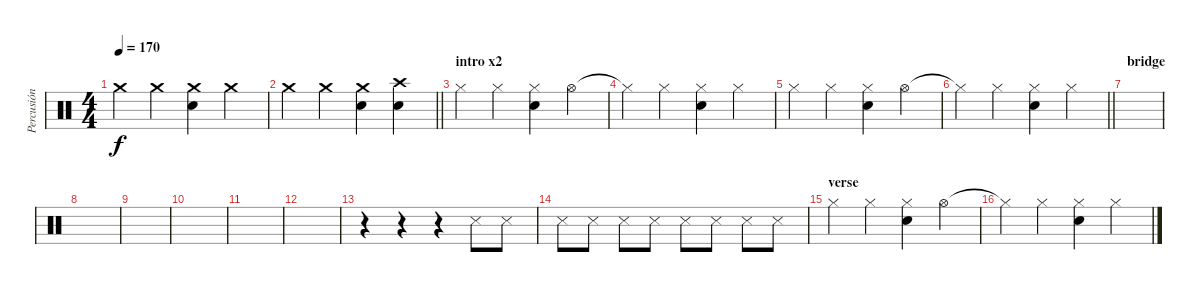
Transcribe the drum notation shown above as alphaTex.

\track ("Percusión" "Percusión") {instrument percussion}
\staff {score}
\articulation defaults
\ts (4 4)
\tempo 170
\clef neutral
\ks c "Crash medium (hit)".4{dy f} "Crash medium (hit)".4
("Crash medium (hit)" "Electric Snare (hit)").4 "Crash medium (hit)".4 |
\barLineRight lightlight "Crash medium (hit)".4 "Crash medium (hit)".4
("Crash medium (hit)" "Electric Snare (hit)").4 ("Crash high (hit)" "Electric Snare (hit)").4 |
\section ("" "intro x2")
"Hi-Hat (closed)".4 "Hi-Hat (closed)".4 ("Electric Snare (hit)" "Hi-Hat (closed)").4 "Hi-Hat (open)".4 |
"Hi-Hat (closed)"{t}.4 "Hi-Hat (closed)".4 ("Electric Snare (hit)" "Hi-Hat (closed)").4 "Hi-Hat (closed)".4 |
"Hi-Hat (closed)".4 "Hi-Hat (closed)".4 ("Electric Snare (hit)" "Hi-Hat (closed)").4 "Hi-Hat (open)".4 |
\barLineRight lightlight "Hi-Hat (closed)"{t}.4 "Hi-Hat (closed)".4
("Electric Snare (hit)" "Hi-Hat (closed)").4 "Hi-Hat (closed)".4 |
\section ("" "bridge")
|
|
|
|
|
|
r.4 r.4 r.4 "Metronome (hit)".8 "Metronome (hit)".8 |
"Metronome (hit)".8 "Metronome (hit)".8 "Metronome (hit)".8 "Metronome (hit)".8 "Metronome (hit)".8 "Metronome (hit)".8 "Metronome (hit)".8 "Metronome (hit)".8 |
\section ("" "verse")
"Hi-Hat (closed)".4 "Hi-Hat (closed)".4 ("Electric Snare (hit)" "Hi-Hat (closed)").4 "Hi-Hat (open)".4 |
"Hi-Hat (closed)"{t}.4 "Hi-Hat (closed)".4 ("Electric Snare (hit)" "Hi-Hat (closed)").4 "Hi-Hat (closed)".4
